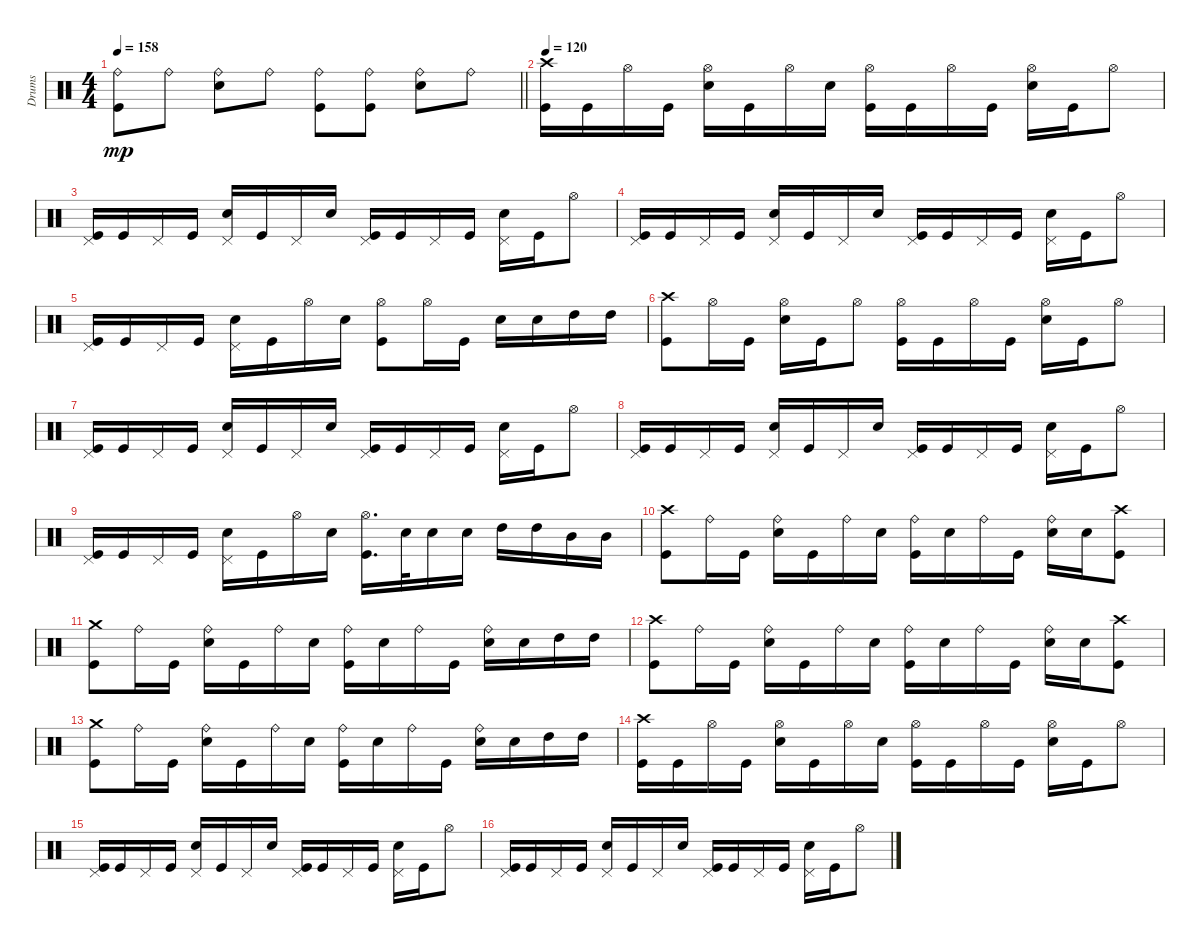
\track ("Drums" "Drums") {instrument percussion}
\staff {score}
\articulation defaults
\ts (4 4)
\tempo 158
\clef neutral
\barLineRight lightlight
\ks c
("Ride (bell)" "Kick (hit)").8{dy mp} "Ride (bell)".8 ("Ride (bell)" "Snare (hit) 2").8 "Ride (bell)".8 ("Ride (bell)" "Kick (hit)").8 ("Ride (bell)" "Kick (hit)").8 ("Ride (bell)" "Snare (hit) 2").8 "Ride (bell)".8 |
\tempo 120
("Crash high (hit)" "Kick (hit)").16 "Kick (hit)".16 "Hi-Hat (open)".16 "Kick (hit)".16 ("Hi-Hat (open)" "Snare (hit) 2").16 "Kick (hit)".16 "Hi-Hat (open)".16 "Snare (hit) 2".16 ("Hi-Hat (open)" "Kick (hit)").16 "Kick (hit)".16 "Hi-Hat (open)".16 "Kick (hit)".16 ("Hi-Hat (open)" "Snare (hit) 2").16 "Kick (hit)".16 "Hi-Hat (open)".8 |
("Pedal Hi-Hat (hit)" "Kick (hit)").16 "Kick (hit)".16 "Pedal Hi-Hat (hit)".16 "Kick (hit)".16 ("Pedal Hi-Hat (hit)" "Snare (hit) 2").16 "Kick (hit)".16 "Pedal Hi-Hat (hit)".16 "Snare (hit) 2".16 ("Pedal Hi-Hat (hit)" "Kick (hit)").16 "Kick (hit)".16 "Pedal Hi-Hat (hit)".16 "Kick (hit)".16 ("Pedal Hi-Hat (hit)" "Snare (hit) 2").16 "Kick (hit)".16 "Hi-Hat (open)".8 |
("Pedal Hi-Hat (hit)" "Kick (hit)").16 "Kick (hit)".16 "Pedal Hi-Hat (hit)".16 "Kick (hit)".16 ("Pedal Hi-Hat (hit)" "Snare (hit) 2").16 "Kick (hit)".16 "Pedal Hi-Hat (hit)".16 "Snare (hit) 2".16 ("Pedal Hi-Hat (hit)" "Kick (hit)").16 "Kick (hit)".16 "Pedal Hi-Hat (hit)".16 "Kick (hit)".16 ("Pedal Hi-Hat (hit)" "Snare (hit) 2").16 "Kick (hit)".16 "Hi-Hat (open)".8 |
("Pedal Hi-Hat (hit)" "Kick (hit)").16 "Kick (hit)".16 "Pedal Hi-Hat (hit)".16 "Kick (hit)".16 ("Pedal Hi-Hat (hit)" "Snare (hit) 2").16 "Kick (hit)".16 "Hi-Hat (open)".16 "Snare (hit) 2".16 ("Hi-Hat (open)" "Kick (hit)").8 "Hi-Hat (open)".16 "Kick (hit)".16 "Snare (hit) 2".16 "Snare (hit) 2".16 "High Tom (hit)".16 "High Tom (hit)".16 |
("Crash high (hit)" "Kick (hit)").8 "Hi-Hat (open)".16 "Kick (hit)".16 ("Hi-Hat (open)" "Snare (hit) 2").16 "Kick (hit)".16 "Hi-Hat (open)".8 ("Hi-Hat (open)" "Kick (hit)").16 "Kick (hit)".16 "Hi-Hat (open)".16 "Kick (hit)".16 ("Hi-Hat (open)" "Snare (hit) 2").16 "Kick (hit)".16 "Hi-Hat (open)".8 |
("Pedal Hi-Hat (hit)" "Kick (hit)").16 "Kick (hit)".16 "Pedal Hi-Hat (hit)".16 "Kick (hit)".16 ("Pedal Hi-Hat (hit)" "Snare (hit) 2").16 "Kick (hit)".16 "Pedal Hi-Hat (hit)".16 "Snare (hit) 2".16 ("Pedal Hi-Hat (hit)" "Kick (hit)").16 "Kick (hit)".16 "Pedal Hi-Hat (hit)".16 "Kick (hit)".16 ("Pedal Hi-Hat (hit)" "Snare (hit) 2").16 "Kick (hit)".16 "Hi-Hat (open)".8 |
("Pedal Hi-Hat (hit)" "Kick (hit)").16 "Kick (hit)".16 "Pedal Hi-Hat (hit)".16 "Kick (hit)".16 ("Pedal Hi-Hat (hit)" "Snare (hit) 2").16 "Kick (hit)".16 "Pedal Hi-Hat (hit)".16 "Snare (hit) 2".16 ("Pedal Hi-Hat (hit)" "Kick (hit)").16 "Kick (hit)".16 "Pedal Hi-Hat (hit)".16 "Kick (hit)".16 ("Pedal Hi-Hat (hit)" "Snare (hit) 2").16 "Kick (hit)".16 "Hi-Hat (open)".8 |
("Pedal Hi-Hat (hit)" "Kick (hit)").16 "Kick (hit)".16 "Pedal Hi-Hat (hit)".16 "Kick (hit)".16 ("Pedal Hi-Hat (hit)" "Snare (hit) 2").16 "Kick (hit)".16 "Hi-Hat (open)".16 "Snare (hit) 2".16 ("Hi-Hat (open)" "Kick (hit)").16{d} "Snare (hit) 2".32 "Snare (hit) 2".16 "Snare (hit) 2".16 "High Tom (hit)".16 "High Tom (hit)".16 "Mid Tom (hit)".16 "Mid Tom (hit)".16 |
("Crash high (hit)" "Kick (hit)").8 "Ride (bell)".16 "Kick (hit)".16 ("Ride (bell)" "Snare (hit) 2").16 "Kick (hit)".16 "Ride (bell)".16 "Snare (hit) 2".16 ("Ride (bell)" "Kick (hit)").16 "Snare (hit) 2".16 "Ride (bell)".16 "Kick (hit)".16 ("Ride (bell)" "Snare (hit) 2").16 "Snare (hit) 2".16 ("Crash high (hit)" "Kick (hit)").8 |
("Crash medium (hit)" "Kick (hit)").8 "Ride (bell)".16 "Kick (hit)".16 ("Ride (bell)" "Snare (hit) 2").16 "Kick (hit)".16 "Ride (bell)".16 "Snare (hit) 2".16 ("Ride (bell)" "Kick (hit)").16 "Snare (hit) 2".16 "Ride (bell)".16 "Kick (hit)".16 ("Ride (bell)" "Snare (hit) 2").16 "Snare (hit) 2".16 "High Tom (hit)".16 "High Tom (hit)".16 |
("Crash high (hit)" "Kick (hit)").8 "Ride (bell)".16 "Kick (hit)".16 ("Ride (bell)" "Snare (hit) 2").16 "Kick (hit)".16 "Ride (bell)".16 "Snare (hit) 2".16 ("Ride (bell)" "Kick (hit)").16 "Snare (hit) 2".16 "Ride (bell)".16 "Kick (hit)".16 ("Ride (bell)" "Snare (hit) 2").16 "Snare (hit) 2".16 ("Crash high (hit)" "Kick (hit)").8 |
("Crash medium (hit)" "Kick (hit)").8 "Ride (bell)".16 "Kick (hit)".16 ("Ride (bell)" "Snare (hit) 2").16 "Kick (hit)".16 "Ride (bell)".16 "Snare (hit) 2".16 ("Ride (bell)" "Kick (hit)").16 "Snare (hit) 2".16 "Ride (bell)".16 "Kick (hit)".16 ("Ride (bell)" "Snare (hit) 2").16 "Snare (hit) 2".16 "High Tom (hit)".16 "High Tom (hit)".16 |
("Crash high (hit)" "Kick (hit)").16 "Kick (hit)".16 "Hi-Hat (open)".16 "Kick (hit)".16 ("Hi-Hat (open)" "Snare (hit) 2").16 "Kick (hit)".16 "Hi-Hat (open)".16 "Snare (hit) 2".16 ("Hi-Hat (open)" "Kick (hit)").16 "Kick (hit)".16 "Hi-Hat (open)".16 "Kick (hit)".16 ("Hi-Hat (open)" "Snare (hit) 2").16 "Kick (hit)".16 "Hi-Hat (open)".8 |
("Pedal Hi-Hat (hit)" "Kick (hit)").16 "Kick (hit)".16 "Pedal Hi-Hat (hit)".16 "Kick (hit)".16 ("Pedal Hi-Hat (hit)" "Snare (hit) 2").16 "Kick (hit)".16 "Pedal Hi-Hat (hit)".16 "Snare (hit) 2".16 ("Pedal Hi-Hat (hit)" "Kick (hit)").16 "Kick (hit)".16 "Pedal Hi-Hat (hit)".16 "Kick (hit)".16 ("Pedal Hi-Hat (hit)" "Snare (hit) 2").16 "Kick (hit)".16 "Hi-Hat (open)".8 |
("Pedal Hi-Hat (hit)" "Kick (hit)").16 "Kick (hit)".16 "Pedal Hi-Hat (hit)".16 "Kick (hit)".16 ("Pedal Hi-Hat (hit)" "Snare (hit) 2").16 "Kick (hit)".16 "Pedal Hi-Hat (hit)".16 "Snare (hit) 2".16 ("Pedal Hi-Hat (hit)" "Kick (hit)").16 "Kick (hit)".16 "Pedal Hi-Hat (hit)".16 "Kick (hit)".16 ("Pedal Hi-Hat (hit)" "Snare (hit) 2").16 "Kick (hit)".16 "Hi-Hat (open)".8
